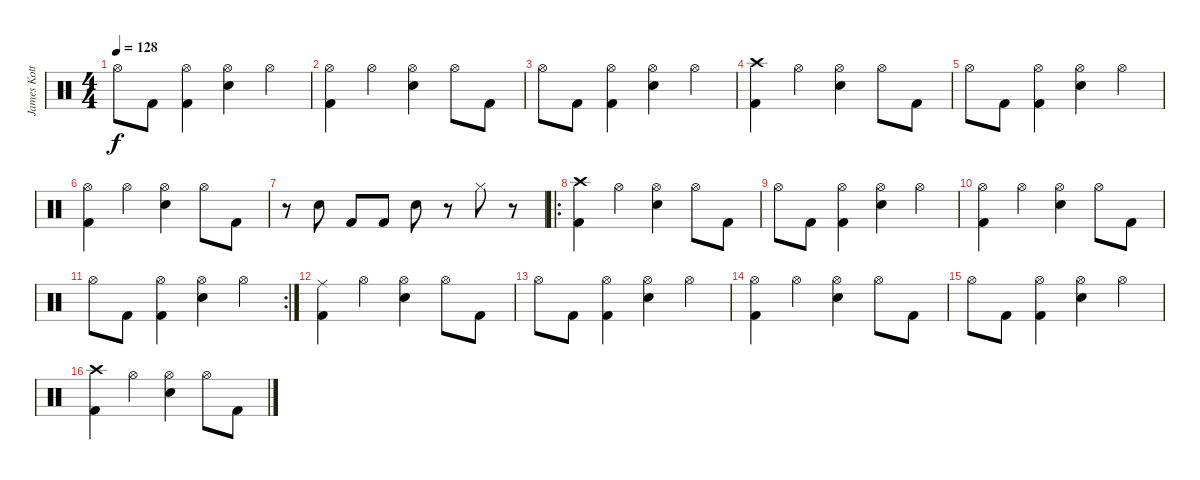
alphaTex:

\track ("James Kottak" "James Kott") {instrument percussion}
\staff {score}
\articulation defaults
\ts (4 4)
\tempo 128
\clef neutral
\ks c "Hi-Hat (open)".8{dy f} "Kick (hit) 2".8
("Hi-Hat (open)" "Kick (hit) 2").4 ("Hi-Hat (open)" "Electric Snare (hit)").4 "Hi-Hat (open)".4 |
("Hi-Hat (open)" "Kick (hit) 2").4 "Hi-Hat (open)".4 ("Hi-Hat (open)" "Electric Snare (hit)").4 "Hi-Hat (open)".8 "Kick (hit) 2".8 |
"Hi-Hat (open)".8 "Kick (hit) 2".8 ("Hi-Hat (open)" "Kick (hit) 2").4 ("Hi-Hat (open)" "Electric Snare (hit)").4 "Hi-Hat (open)".4 |
("Crash high (hit)" "Kick (hit) 2").4 "Hi-Hat (open)".4 ("Hi-Hat (open)" "Electric Snare (hit)").4 "Hi-Hat (open)".8 "Kick (hit) 2".8 |
"Hi-Hat (open)".8 "Kick (hit) 2".8 ("Hi-Hat (open)" "Kick (hit) 2").4 ("Hi-Hat (open)" "Electric Snare (hit)").4 "Hi-Hat (open)".4 |
("Hi-Hat (open)" "Kick (hit) 2").4 "Hi-Hat (open)".4 ("Hi-Hat (open)" "Electric Snare (hit)").4 "Hi-Hat (open)".8 "Kick (hit) 2".8 |
r.8 "Electric Snare (hit)".8 "Kick (hit) 2".8 "Kick (hit) 2".8 "Electric Snare (hit)".8 r.8 "Hi-Hat (closed)".8 r.8 |
\ro
("Crash high (hit)" "Kick (hit) 2").4 "Hi-Hat (open)".4 ("Hi-Hat (open)" "Electric Snare (hit)").4 "Hi-Hat (open)".8 "Kick (hit) 2".8 |
"Hi-Hat (open)".8 "Kick (hit) 2".8 ("Hi-Hat (open)" "Kick (hit) 2").4 ("Hi-Hat (open)" "Electric Snare (hit)").4 "Hi-Hat (open)".4 |
("Hi-Hat (open)" "Kick (hit) 2").4 "Hi-Hat (open)".4 ("Hi-Hat (open)" "Electric Snare (hit)").4 "Hi-Hat (open)".8 "Kick (hit) 2".8 |
\rc 2 "Hi-Hat (open)".8 "Kick (hit) 2".8
("Hi-Hat (open)" "Kick (hit) 2").4 ("Hi-Hat (open)" "Electric Snare (hit)").4 "Hi-Hat (open)".4 |
("Ride (middle)" "Kick (hit) 2").4 "Hi-Hat (open)".4 ("Hi-Hat (open)" "Electric Snare (hit)").4 "Hi-Hat (open)".8 "Kick (hit) 2".8 |
"Hi-Hat (open)".8 "Kick (hit) 2".8 ("Hi-Hat (open)" "Kick (hit) 2").4 ("Hi-Hat (open)" "Electric Snare (hit)").4 "Hi-Hat (open)".4 |
("Hi-Hat (open)" "Kick (hit) 2").4 "Hi-Hat (open)".4 ("Hi-Hat (open)" "Electric Snare (hit)").4 "Hi-Hat (open)".8 "Kick (hit) 2".8 |
"Hi-Hat (open)".8 "Kick (hit) 2".8 ("Hi-Hat (open)" "Kick (hit) 2").4 ("Hi-Hat (open)" "Electric Snare (hit)").4 "Hi-Hat (open)".4 |
("Crash high (hit)" "Kick (hit) 2").4 "Hi-Hat (open)".4 ("Hi-Hat (open)" "Electric Snare (hit)").4 "Hi-Hat (open)".8 "Kick (hit) 2".8
